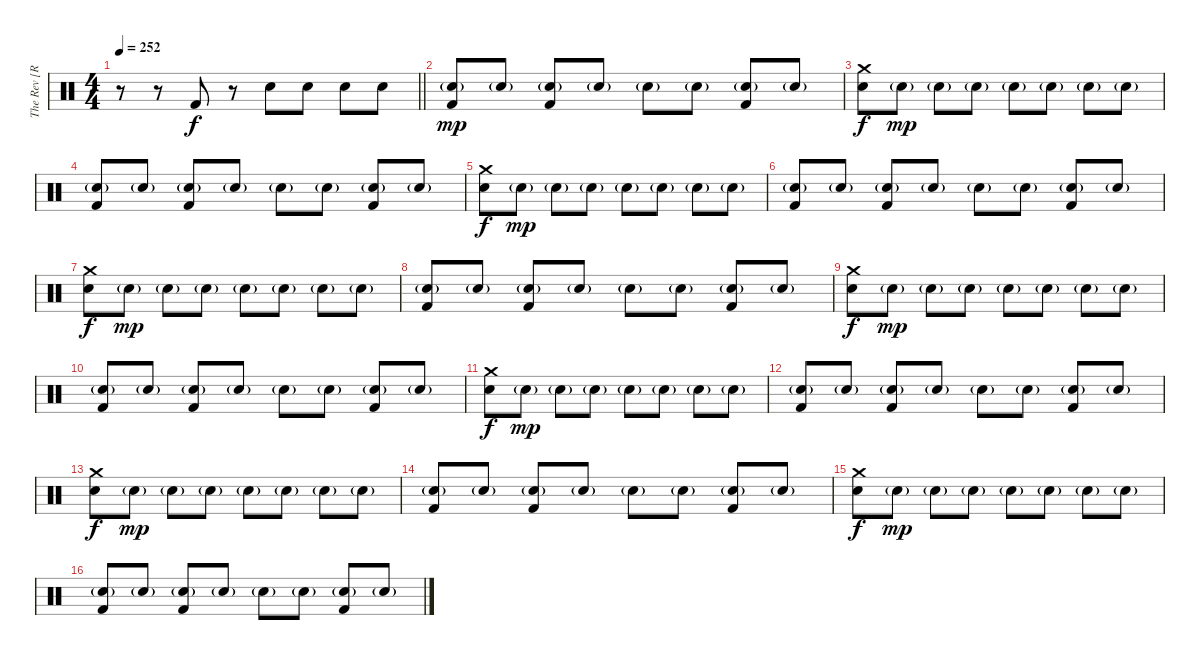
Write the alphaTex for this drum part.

\track ("The Rev [R.I.P]" "The Rev [R") {instrument percussion}
\staff {score}
\articulation defaults
\ts (4 4)
\tempo 252
\clef neutral
\barLineRight lightlight
\ks c
r.8{dy f} r.8 "Kick (hit) 2".8 r.8 "Electric Snare (hit)".8 "Electric Snare (hit)".8 "Electric Snare (hit)".8 "Electric Snare (hit)".8 |
("Electric Snare (hit)"{g} "Kick (hit) 2").8{dy mp} "Electric Snare (hit)"{g}.8 ("Electric Snare (hit)"{g} "Kick (hit) 2").8 "Electric Snare (hit)"{g}.8 "Electric Snare (hit)"{g}.8 "Electric Snare (hit)"{g}.8 ("Electric Snare (hit)"{g} "Kick (hit) 2").8 "Electric Snare (hit)"{g}.8 |
("Crash medium (hit)" "Electric Snare (hit)").8{dy f} "Electric Snare (hit)"{g}.8{dy mp} "Electric Snare (hit)"{g}.8 "Electric Snare (hit)"{g}.8 "Electric Snare (hit)"{g}.8 "Electric Snare (hit)"{g}.8 "Electric Snare (hit)"{g}.8 "Electric Snare (hit)"{g}.8 |
("Electric Snare (hit)"{g} "Kick (hit) 2").8 "Electric Snare (hit)"{g}.8 ("Electric Snare (hit)"{g} "Kick (hit) 2").8 "Electric Snare (hit)"{g}.8 "Electric Snare (hit)"{g}.8 "Electric Snare (hit)"{g}.8 ("Electric Snare (hit)"{g} "Kick (hit) 2").8 "Electric Snare (hit)"{g}.8 |
("Crash medium (hit)" "Electric Snare (hit)").8{dy f} "Electric Snare (hit)"{g}.8{dy mp} "Electric Snare (hit)"{g}.8 "Electric Snare (hit)"{g}.8 "Electric Snare (hit)"{g}.8 "Electric Snare (hit)"{g}.8 "Electric Snare (hit)"{g}.8 "Electric Snare (hit)"{g}.8 |
("Electric Snare (hit)"{g} "Kick (hit) 2").8 "Electric Snare (hit)"{g}.8 ("Electric Snare (hit)"{g} "Kick (hit) 2").8 "Electric Snare (hit)"{g}.8 "Electric Snare (hit)"{g}.8 "Electric Snare (hit)"{g}.8 ("Electric Snare (hit)"{g} "Kick (hit) 2").8 "Electric Snare (hit)"{g}.8 |
("Crash medium (hit)" "Electric Snare (hit)").8{dy f} "Electric Snare (hit)"{g}.8{dy mp} "Electric Snare (hit)"{g}.8 "Electric Snare (hit)"{g}.8 "Electric Snare (hit)"{g}.8 "Electric Snare (hit)"{g}.8 "Electric Snare (hit)"{g}.8 "Electric Snare (hit)"{g}.8 |
("Electric Snare (hit)"{g} "Kick (hit) 2").8 "Electric Snare (hit)"{g}.8 ("Electric Snare (hit)"{g} "Kick (hit) 2").8 "Electric Snare (hit)"{g}.8 "Electric Snare (hit)"{g}.8 "Electric Snare (hit)"{g}.8 ("Electric Snare (hit)"{g} "Kick (hit) 2").8 "Electric Snare (hit)"{g}.8 |
("Crash medium (hit)" "Electric Snare (hit)").8{dy f} "Electric Snare (hit)"{g}.8{dy mp} "Electric Snare (hit)"{g}.8 "Electric Snare (hit)"{g}.8 "Electric Snare (hit)"{g}.8 "Electric Snare (hit)"{g}.8 "Electric Snare (hit)"{g}.8 "Electric Snare (hit)"{g}.8 |
("Electric Snare (hit)"{g} "Kick (hit) 2").8 "Electric Snare (hit)"{g}.8 ("Electric Snare (hit)"{g} "Kick (hit) 2").8 "Electric Snare (hit)"{g}.8 "Electric Snare (hit)"{g}.8 "Electric Snare (hit)"{g}.8 ("Electric Snare (hit)"{g} "Kick (hit) 2").8 "Electric Snare (hit)"{g}.8 |
("Crash medium (hit)" "Electric Snare (hit)").8{dy f} "Electric Snare (hit)"{g}.8{dy mp} "Electric Snare (hit)"{g}.8 "Electric Snare (hit)"{g}.8 "Electric Snare (hit)"{g}.8 "Electric Snare (hit)"{g}.8 "Electric Snare (hit)"{g}.8 "Electric Snare (hit)"{g}.8 |
("Electric Snare (hit)"{g} "Kick (hit) 2").8 "Electric Snare (hit)"{g}.8 ("Electric Snare (hit)"{g} "Kick (hit) 2").8 "Electric Snare (hit)"{g}.8 "Electric Snare (hit)"{g}.8 "Electric Snare (hit)"{g}.8 ("Electric Snare (hit)"{g} "Kick (hit) 2").8 "Electric Snare (hit)"{g}.8 |
("Crash medium (hit)" "Electric Snare (hit)").8{dy f} "Electric Snare (hit)"{g}.8{dy mp} "Electric Snare (hit)"{g}.8 "Electric Snare (hit)"{g}.8 "Electric Snare (hit)"{g}.8 "Electric Snare (hit)"{g}.8 "Electric Snare (hit)"{g}.8 "Electric Snare (hit)"{g}.8 |
("Electric Snare (hit)"{g} "Kick (hit) 2").8 "Electric Snare (hit)"{g}.8 ("Electric Snare (hit)"{g} "Kick (hit) 2").8 "Electric Snare (hit)"{g}.8 "Electric Snare (hit)"{g}.8 "Electric Snare (hit)"{g}.8 ("Electric Snare (hit)"{g} "Kick (hit) 2").8 "Electric Snare (hit)"{g}.8 |
("Crash medium (hit)" "Electric Snare (hit)").8{dy f} "Electric Snare (hit)"{g}.8{dy mp} "Electric Snare (hit)"{g}.8 "Electric Snare (hit)"{g}.8 "Electric Snare (hit)"{g}.8 "Electric Snare (hit)"{g}.8 "Electric Snare (hit)"{g}.8 "Electric Snare (hit)"{g}.8 |
("Electric Snare (hit)"{g} "Kick (hit) 2").8 "Electric Snare (hit)"{g}.8 ("Electric Snare (hit)"{g} "Kick (hit) 2").8 "Electric Snare (hit)"{g}.8 "Electric Snare (hit)"{g}.8 "Electric Snare (hit)"{g}.8 ("Electric Snare (hit)"{g} "Kick (hit) 2").8 "Electric Snare (hit)"{g}.8
